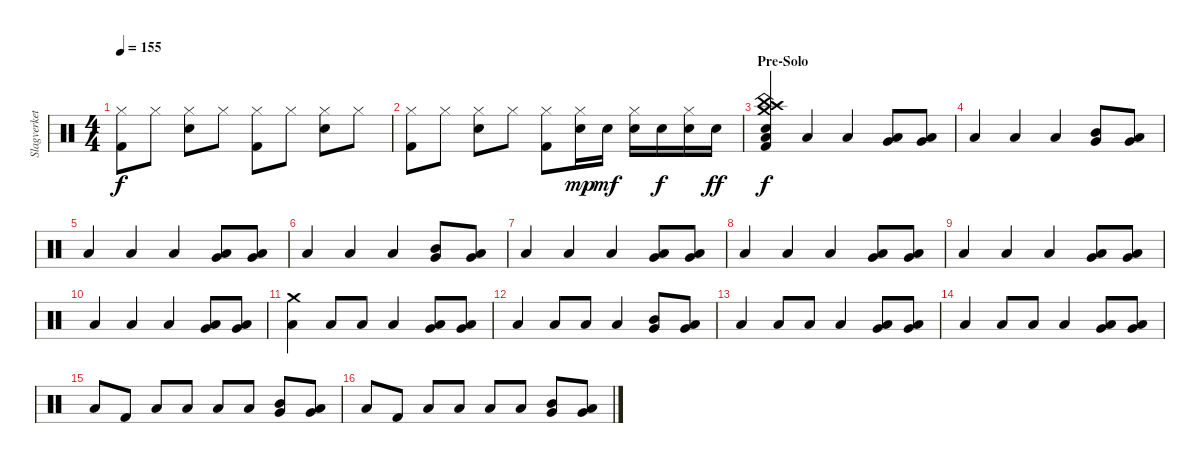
\track ("Slagverket!" "Slagverket") {instrument percussion}
\staff {score}
\articulation defaults
\ts (4 4)
\tempo 155
\clef neutral
\ks c
("Hi-Hat (closed)" "Kick (hit) 2").8{dy f} "Hi-Hat (closed)".8 ("Hi-Hat (closed)" "Electric Snare (hit)").8 "Hi-Hat (closed)".8 ("Hi-Hat (closed)" "Kick (hit) 2").8 "Hi-Hat (closed)".8 ("Hi-Hat (closed)" "Electric Snare (hit)").8 "Hi-Hat (closed)".8 |
("Hi-Hat (closed)" "Kick (hit) 2").8 "Hi-Hat (closed)".8 ("Hi-Hat (closed)" "Electric Snare (hit)").8 "Hi-Hat (closed)".8 ("Hi-Hat (closed)" "Kick (hit) 2").8 ("Hi-Hat (closed)" "Electric Snare (hit)").16{dy mp} "Electric Snare (hit)".16{dy mf} ("Hi-Hat (closed)" "Electric Snare (hit)").16 "Electric Snare (hit)".16{dy f} ("Hi-Hat (closed)" "Electric Snare (hit)").16 "Electric Snare (hit)".16{dy ff} |
\section ("" "Pre-Solo")
("Crash medium (hit)" "Crash high (hit)" "Snare (hit) 2" "China (hit)" "Low Floor Tom (hit)" "Kick (hit) 2").4{dy f} "Low Tom (hit)".4 "Low Floor Tom (hit)".4 ("Low Tom (hit)" "Very Low Tom (hit)").8 ("Low Tom (hit)" "Very Low Tom (hit)").8 |
"Low Floor Tom (hit)".4 "Low Tom (hit)".4 "Low Floor Tom (hit)".4 ("Mid Tom (hit)" "Very Low Tom (hit)").8 ("Low Tom (hit)" "Very Low Tom (hit)").8 |
"Low Floor Tom (hit)".4 "Low Tom (hit)".4 "Low Floor Tom (hit)".4 ("Low Tom (hit)" "Very Low Tom (hit)").8 ("Low Tom (hit)" "Very Low Tom (hit)").8 |
"Low Floor Tom (hit)".4 "Low Tom (hit)".4 "Low Floor Tom (hit)".4 ("Mid Tom (hit)" "Very Low Tom (hit)").8 ("Low Tom (hit)" "Very Low Tom (hit)").8 |
"Low Floor Tom (hit)".4 "Low Tom (hit)".4 "Low Floor Tom (hit)".4 ("Low Tom (hit)" "Very Low Tom (hit)").8 ("Low Tom (hit)" "Very Low Tom (hit)").8 |
"Low Floor Tom (hit)".4 "Low Tom (hit)".4 "Low Floor Tom (hit)".4 ("Low Tom (hit)" "Very Low Tom (hit)").8 ("Low Tom (hit)" "Very Low Tom (hit)").8 |
"Low Floor Tom (hit)".4 "Low Tom (hit)".4 "Low Floor Tom (hit)".4 ("Low Tom (hit)" "Very Low Tom (hit)").8 ("Low Tom (hit)" "Very Low Tom (hit)").8 |
"Low Floor Tom (hit)".4 "Low Tom (hit)".4 "Low Floor Tom (hit)".4 ("Low Tom (hit)" "Very Low Tom (hit)").8 ("Low Tom (hit)" "Very Low Tom (hit)").8 |
\section ("" "")
("Crash medium (hit)" "Low Floor Tom (hit)").4 "Low Tom (hit)".8 "Low Tom (hit)".8 "Low Floor Tom (hit)".4 ("Low Tom (hit)" "Very Low Tom (hit)").8 ("Low Tom (hit)" "Very Low Tom (hit)").8 |
"Low Floor Tom (hit)".4 "Low Tom (hit)".8 "Low Tom (hit)".8 "Low Floor Tom (hit)".4 ("Mid Tom (hit)" "Very Low Tom (hit)").8 ("Low Tom (hit)" "Very Low Tom (hit)").8 |
"Low Floor Tom (hit)".4 "Low Tom (hit)".8 "Low Tom (hit)".8 "Low Floor Tom (hit)".4 ("Low Tom (hit)" "Very Low Tom (hit)").8 ("Low Tom (hit)" "Very Low Tom (hit)").8 |
"Low Floor Tom (hit)".4 "Low Tom (hit)".8 "Low Tom (hit)".8 "Low Floor Tom (hit)".4 ("Low Tom (hit)" "Very Low Tom (hit)").8 ("Low Tom (hit)" "Very Low Tom (hit)").8 |
"Low Floor Tom (hit)".8 "Kick (hit) 2".8 "Low Tom (hit)".8 "Low Tom (hit)".8 "Low Floor Tom (hit)".8 "Low Floor Tom (hit)".8 ("Mid Tom (hit)" "Very Low Tom (hit)").8 ("Low Tom (hit)" "Very Low Tom (hit)").8 |
"Low Floor Tom (hit)".8 "Kick (hit) 2".8 "Low Tom (hit)".8 "Low Tom (hit)".8 "Low Floor Tom (hit)".8 "Low Floor Tom (hit)".8 ("Mid Tom (hit)" "Very Low Tom (hit)").8 ("Low Tom (hit)" "Very Low Tom (hit)").8
